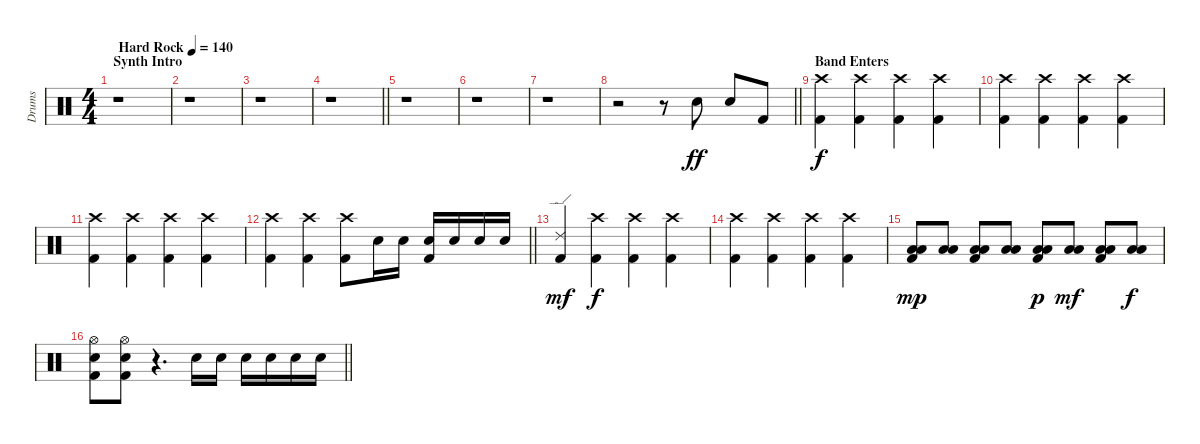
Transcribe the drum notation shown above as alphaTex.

\track ("Drums" "Drums") {instrument percussion}
\staff {score}
\articulation defaults
\ts (4 4)
\section ("" "Synth Intro")
\tempo (140 "Hard Rock")
\clef neutral
\ks c
r.1{dy ff} |
r.1 |
r.1 |
\barLineRight lightlight
r.1 |
r.1 |
r.1 |
r.1 |
\barLineRight lightlight
r.2 r.8 "Electric Snare (hit)".8{balance 8} "Electric Snare (hit)".8 "Kick (hit) 2".8 |
\section ("" "Band Enters")
("Crash high (hit)" "Kick (hit) 2").4{dy f} ("Crash high (hit)" "Kick (hit) 2").4 ("Crash high (hit)" "Kick (hit) 2").4 ("Crash high (hit)" "Kick (hit) 2").4 |
("Crash high (hit)" "Kick (hit) 2").4 ("Crash high (hit)" "Kick (hit) 2").4 ("Crash high (hit)" "Kick (hit) 2").4 ("Crash high (hit)" "Kick (hit) 2").4 |
("Crash high (hit)" "Kick (hit) 2").4 ("Crash high (hit)" "Kick (hit) 2").4 ("Crash high (hit)" "Kick (hit) 2").4 ("Crash high (hit)" "Kick (hit) 2").4 |
\barLineRight lightlight
("Crash high (hit)" "Kick (hit) 2").4 ("Crash high (hit)" "Kick (hit) 2").4 ("Crash high (hit)" "Kick (hit) 2").8 "Electric Snare (hit)".16 "Electric Snare (hit)".16 ("Electric Snare (hit)" "Kick (hit) 2").16 "Electric Snare (hit)".16 "Electric Snare (hit)".16 "Electric Snare (hit)".16 |
("Ride (edge) 2" "Kick (hit) 2").4{dy mf} ("Crash high (hit)" "Kick (hit) 2").4{dy f} ("Crash high (hit)" "Kick (hit) 2").4 ("Crash high (hit)" "Kick (hit) 2").4 |
("Crash high (hit)" "Kick (hit) 2").4 ("Crash high (hit)" "Kick (hit) 2").4 ("Crash high (hit)" "Kick (hit) 2").4 ("Crash high (hit)" "Kick (hit) 2").4 |
("Low Tom (hit)" "Low Floor Tom (hit)" "Kick (hit) 2").8{dy mp} ("Low Tom (hit)" "Low Floor Tom (hit)").8 ("Low Tom (hit)" "Low Floor Tom (hit)" "Kick (hit) 2").8 ("Low Tom (hit)" "Low Floor Tom (hit)").8 ("Low Tom (hit)" "Low Floor Tom (hit)" "Kick (hit) 2").8{dy p} ("Low Tom (hit)" "Low Floor Tom (hit)").8{dy mf} ("Low Tom (hit)" "Low Floor Tom (hit)" "Kick (hit) 2").8 ("Low Tom (hit)" "Low Floor Tom (hit)").8{dy f} |
\barLineRight lightlight
("Hi-Hat (open)" "Electric Snare (hit)" "Kick (hit) 2").8 ("Hi-Hat (open)" "Electric Snare (hit)" "Kick (hit) 2").8 r.4{d volume 0} "Electric Snare (hit)".16{volume 10} "Electric Snare (hit)".16 "Electric Snare (hit)".16 "Electric Snare (hit)".16 "Electric Snare (hit)".16 "Electric Snare (hit)".16
